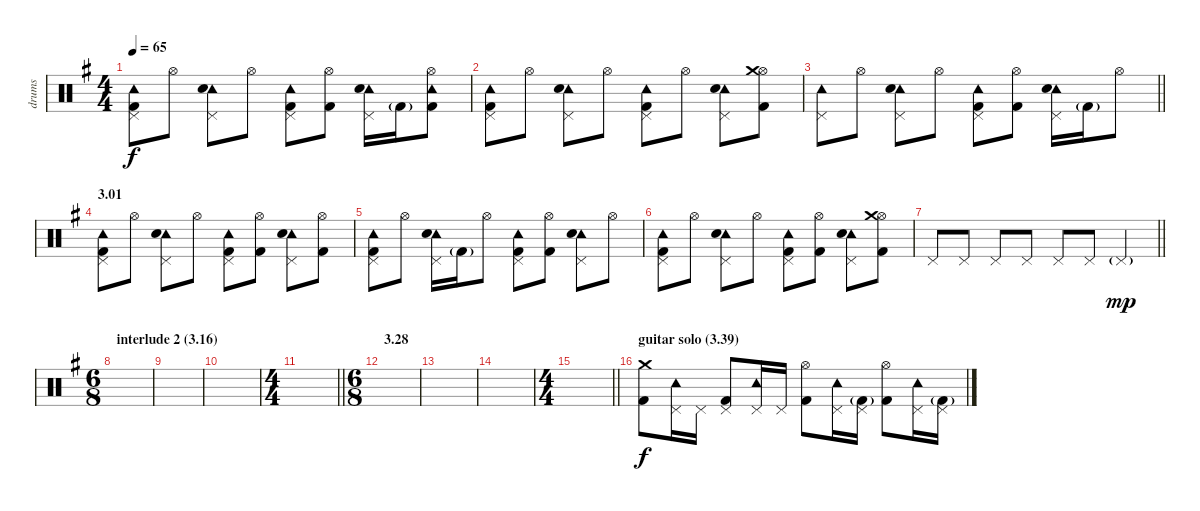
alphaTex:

\track ("drums" "drums") {instrument percussion}
\staff {score}
\articulation defaults
\ts (4 4)
\tempo 65
\clef neutral
\ks g
("Pedal Hi-Hat (hit)" "Tambourine (hit)" "Kick (hit) 2").8{dy f} "Hi-Hat (open)".8 ("Pedal Hi-Hat (hit)" "Tambourine (hit)" "Electric Snare (hit)").8 "Hi-Hat (open)".8 ("Pedal Hi-Hat (hit)" "Tambourine (hit)" "Kick (hit) 2").8 ("Hi-Hat (open)" "Kick (hit) 2").8 ("Pedal Hi-Hat (hit)" "Tambourine (hit)" "Electric Snare (hit)").16 "Kick (hit) 2"{g}.16 ("Hi-Hat (open)" "Tambourine (hit)" "Kick (hit) 2").8 |
("Pedal Hi-Hat (hit)" "Tambourine (hit)" "Kick (hit) 2").8 "Hi-Hat (open)".8 ("Pedal Hi-Hat (hit)" "Tambourine (hit)" "Electric Snare (hit)").8 "Hi-Hat (open)".8 ("Pedal Hi-Hat (hit)" "Tambourine (hit)" "Kick (hit) 2").8 "Hi-Hat (open)".8 ("Pedal Hi-Hat (hit)" "Tambourine (hit)" "Electric Snare (hit)").8 ("Hi-Hat (open)" "Crash medium (hit)" "Kick (hit) 2").8 |
\barLineRight lightlight
("Pedal Hi-Hat (hit)" "Tambourine (hit)").8 "Hi-Hat (open)".8 ("Pedal Hi-Hat (hit)" "Tambourine (hit)" "Electric Snare (hit)").8 "Hi-Hat (open)".8 ("Pedal Hi-Hat (hit)" "Tambourine (hit)" "Kick (hit) 2").8 ("Hi-Hat (open)" "Kick (hit) 2").8 ("Pedal Hi-Hat (hit)" "Tambourine (hit)" "Electric Snare (hit)").16 "Kick (hit) 2"{g}.16 "Hi-Hat (open)".8 |
\section ("" "3.01")
("Pedal Hi-Hat (hit)" "Tambourine (hit)" "Kick (hit) 2").8 "Hi-Hat (open)".8 ("Pedal Hi-Hat (hit)" "Tambourine (hit)" "Electric Snare (hit)").8 "Hi-Hat (open)".8 ("Pedal Hi-Hat (hit)" "Tambourine (hit)" "Kick (hit) 2").8 ("Hi-Hat (open)" "Kick (hit) 2").8 ("Pedal Hi-Hat (hit)" "Tambourine (hit)" "Electric Snare (hit)").8 ("Hi-Hat (open)" "Kick (hit) 2").8 |
("Pedal Hi-Hat (hit)" "Tambourine (hit)" "Kick (hit) 2").8 "Hi-Hat (open)".8 ("Pedal Hi-Hat (hit)" "Tambourine (hit)" "Electric Snare (hit)").16 "Kick (hit) 2"{g}.16 "Hi-Hat (open)".8 ("Pedal Hi-Hat (hit)" "Tambourine (hit)" "Kick (hit) 2").8 ("Hi-Hat (open)" "Kick (hit) 2").8 ("Pedal Hi-Hat (hit)" "Tambourine (hit)" "Electric Snare (hit)").8 "Hi-Hat (open)".8 |
("Pedal Hi-Hat (hit)" "Tambourine (hit)" "Kick (hit) 2").8 "Hi-Hat (open)".8 ("Pedal Hi-Hat (hit)" "Tambourine (hit)" "Electric Snare (hit)").8 "Hi-Hat (open)".8 ("Pedal Hi-Hat (hit)" "Tambourine (hit)" "Kick (hit) 2").8 ("Hi-Hat (open)" "Kick (hit) 2").8 ("Pedal Hi-Hat (hit)" "Tambourine (hit)" "Electric Snare (hit)").8 ("Hi-Hat (open)" "Crash medium (hit)" "Kick (hit) 2").8 |
\barLineRight lightlight "Pedal Hi-Hat (hit)".8 "Pedal Hi-Hat (hit)".8 "Pedal Hi-Hat (hit)".8 "Pedal Hi-Hat (hit)".8 "Pedal Hi-Hat (hit)".8 "Pedal Hi-Hat (hit)".8 "Pedal Hi-Hat (hit)"{g}.4{dy mp}
|
\ts (6 8)
\section ("" "interlude 2 (3.16)")
|
|
|
\ts (4 4)
\barLineRight lightlight
|
\ts (6 8)
\section ("" "3.28")
|
|
|
\ts (4 4)
\barLineRight lightlight
|
\section ("" "guitar solo (3.39)")
("Crash medium (hit)" "Kick (hit) 2").8{dy f} ("Pedal Hi-Hat (hit)" "Tambourine (hit)").16 "Pedal Hi-Hat (hit)".16 ("Pedal Hi-Hat (hit)" "Kick (hit) 2").8 ("Pedal Hi-Hat (hit)" "Tambourine (hit)").16 "Pedal Hi-Hat (hit)".16 ("Hi-Hat (open)" "Kick (hit) 2").8 ("Pedal Hi-Hat (hit)" "Tambourine (hit)").16 ("Pedal Hi-Hat (hit)" "Kick (hit) 2"{g}).16 ("Hi-Hat (open)" "Kick (hit) 2").8 ("Pedal Hi-Hat (hit)" "Tambourine (hit)").16 ("Pedal Hi-Hat (hit)" "Kick (hit) 2"{g}).16
